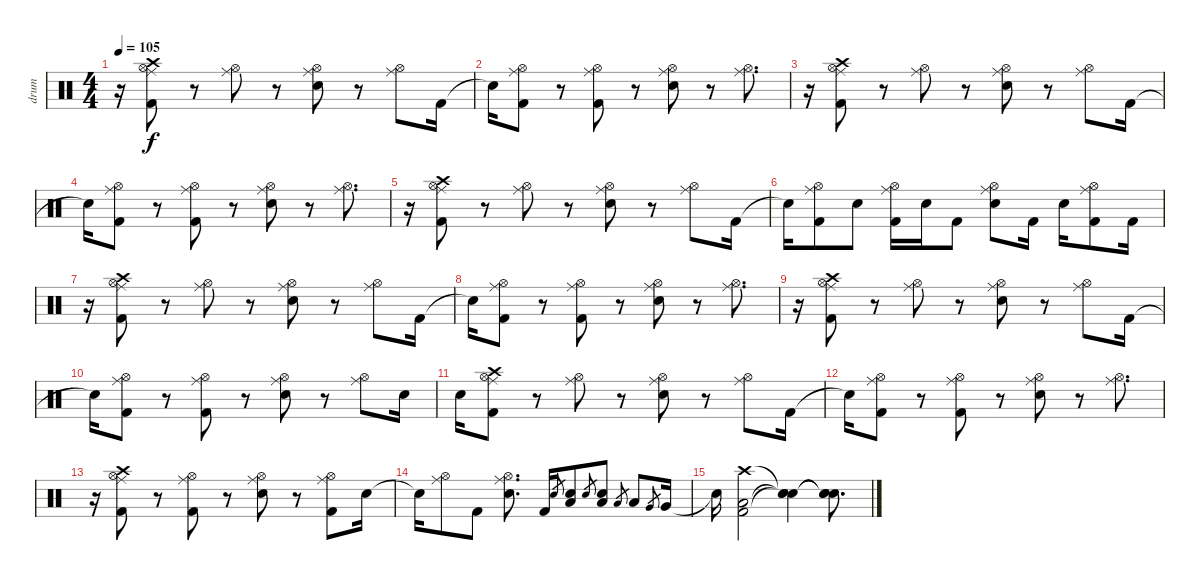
\track ("drum" "drum") {instrument percussion}
\staff {score}
\articulation defaults
\ts (4 4)
\tempo 105
\clef neutral
\ks c
r.16{dy f} ("Crash high (hit)" "Hi-Hat (open)" "Ride (middle)" "Kick (hit) 2").8 r.8 ("Hi-Hat (open)" "Ride (middle)").8 r.8 ("Hi-Hat (open)" "Ride (middle)" "Electric Snare (hit)").8 r.8 ("Hi-Hat (open)" "Ride (middle)").8 "Kick (hit) 2".16 |
"Snare (hit)"{t}.16 ("Hi-Hat (open)" "Ride (middle)" "Kick (hit) 2").8 r.8 ("Hi-Hat (open)" "Ride (middle)" "Kick (hit) 2").8 r.8 ("Hi-Hat (open)" "Ride (middle)" "Electric Snare (hit)").8 r.8 ("Hi-Hat (open)" "Ride (middle)").8{d} |
r.16 ("Crash high (hit)" "Hi-Hat (open)" "Ride (middle)" "Kick (hit) 2").8 r.8 ("Hi-Hat (open)" "Ride (middle)").8 r.8 ("Hi-Hat (open)" "Ride (middle)" "Electric Snare (hit)").8 r.8 ("Hi-Hat (open)" "Ride (middle)").8 "Kick (hit) 2".16 |
"Snare (hit)"{t}.16 ("Hi-Hat (open)" "Ride (middle)" "Kick (hit) 2").8 r.8 ("Hi-Hat (open)" "Ride (middle)" "Kick (hit) 2").8 r.8 ("Hi-Hat (open)" "Ride (middle)" "Electric Snare (hit)").8 r.8 ("Hi-Hat (open)" "Ride (middle)").8{d} |
r.16 ("Crash high (hit)" "Hi-Hat (open)" "Ride (middle)" "Kick (hit) 2").8 r.8 ("Hi-Hat (open)" "Ride (middle)").8 r.8 ("Hi-Hat (open)" "Ride (middle)" "Electric Snare (hit)").8 r.8 ("Hi-Hat (open)" "Ride (middle)").8 "Kick (hit) 2".16 |
"Snare (hit)"{t}.16 ("Hi-Hat (open)" "Ride (middle)" "Kick (hit) 2").8 "Electric Snare (hit)".8 ("Hi-Hat (open)" "Ride (middle)" "Kick (hit) 2").16 "Electric Snare (hit)".16 "Kick (hit) 2".8 ("Hi-Hat (open)" "Ride (middle)" "Electric Snare (hit)").8 "Kick (hit) 2".16 "Electric Snare (hit)".16 ("Hi-Hat (open)" "Ride (middle)" "Kick (hit) 2").8 "Kick (hit) 2".16 |
r.16 ("Crash high (hit)" "Hi-Hat (open)" "Ride (middle)" "Kick (hit) 2").8 r.8 ("Hi-Hat (open)" "Ride (middle)").8 r.8 ("Hi-Hat (open)" "Ride (middle)" "Electric Snare (hit)").8 r.8 ("Hi-Hat (open)" "Ride (middle)").8 "Kick (hit) 2".16 |
"Snare (hit)"{t}.16 ("Hi-Hat (open)" "Ride (middle)" "Kick (hit) 2").8 r.8 ("Hi-Hat (open)" "Ride (middle)" "Kick (hit) 2").8 r.8 ("Hi-Hat (open)" "Ride (middle)" "Electric Snare (hit)").8 r.8 ("Hi-Hat (open)" "Ride (middle)").8{d} |
r.16 ("Crash high (hit)" "Hi-Hat (open)" "Ride (middle)" "Kick (hit) 2").8 r.8 ("Hi-Hat (open)" "Ride (middle)").8 r.8 ("Hi-Hat (open)" "Ride (middle)" "Electric Snare (hit)").8 r.8 ("Hi-Hat (open)" "Ride (middle)").8 "Kick (hit) 2".16 |
"Snare (hit)"{t}.16 ("Hi-Hat (open)" "Ride (middle)" "Kick (hit) 2").8 r.8 ("Hi-Hat (open)" "Ride (middle)" "Kick (hit) 2").8 r.8 ("Hi-Hat (open)" "Ride (middle)" "Electric Snare (hit)").8 r.8 ("Hi-Hat (open)" "Ride (middle)").8 "Electric Snare (hit)".16 |
"Electric Snare (hit)".16 ("Crash high (hit)" "Hi-Hat (open)" "Ride (middle)" "Kick (hit) 2").8 r.8 ("Hi-Hat (open)" "Ride (middle)").8 r.8 ("Hi-Hat (open)" "Ride (middle)" "Electric Snare (hit)").8 r.8 ("Hi-Hat (open)" "Ride (middle)").8 "Kick (hit) 2".16 |
"Snare (hit)"{t}.16 ("Hi-Hat (open)" "Ride (middle)" "Kick (hit) 2").8 r.8 ("Hi-Hat (open)" "Ride (middle)" "Kick (hit) 2").8 r.8 ("Hi-Hat (open)" "Ride (middle)" "Electric Snare (hit)").8 r.8 ("Hi-Hat (open)" "Ride (middle)").8{d} |
r.16 ("Crash high (hit)" "Hi-Hat (open)" "Ride (middle)" "Kick (hit) 2").8 r.8 ("Hi-Hat (open)" "Ride (middle)" "Kick (hit) 2").8 r.8 ("Hi-Hat (open)" "Ride (middle)" "Electric Snare (hit)").8 r.8 ("Hi-Hat (open)" "Ride (middle)" "Kick (hit) 2").8 "Electric Snare (hit)".16 |
"Electric Snare (hit)"{t}.16 ("Hi-Hat (open)" "Ride (middle)").8 "Kick (hit) 2".8 ("Hi-Hat (open)" "Ride (middle)" "Electric Snare (hit)").8{d} "Kick (hit) 2".16 "Electric Snare (hit)".8{gr} ("Low Floor Tom (hit)" "Electric Snare (hit)").8 "Electric Snare (hit)".8{gr} ("Low Floor Tom (hit)" "Electric Snare (hit)").8 "Low Tom (hit)".8{gr} "Low Tom (hit)".8 "Very Low Tom (hit)".8{gr} "Very Low Tom (hit)".16 |
"Snare (hit)"{t}.16 ("Crash high (hit)" "Low Floor Tom (hit)" "Kick (hit) 2").2 ("Snare (hit)"{t} "Snare (hit)"{t} "Snare (hit)"{t}).4 ("Snare (hit)"{t} "Snare (hit)"{t} "Snare (hit)"{t}).8{d}
